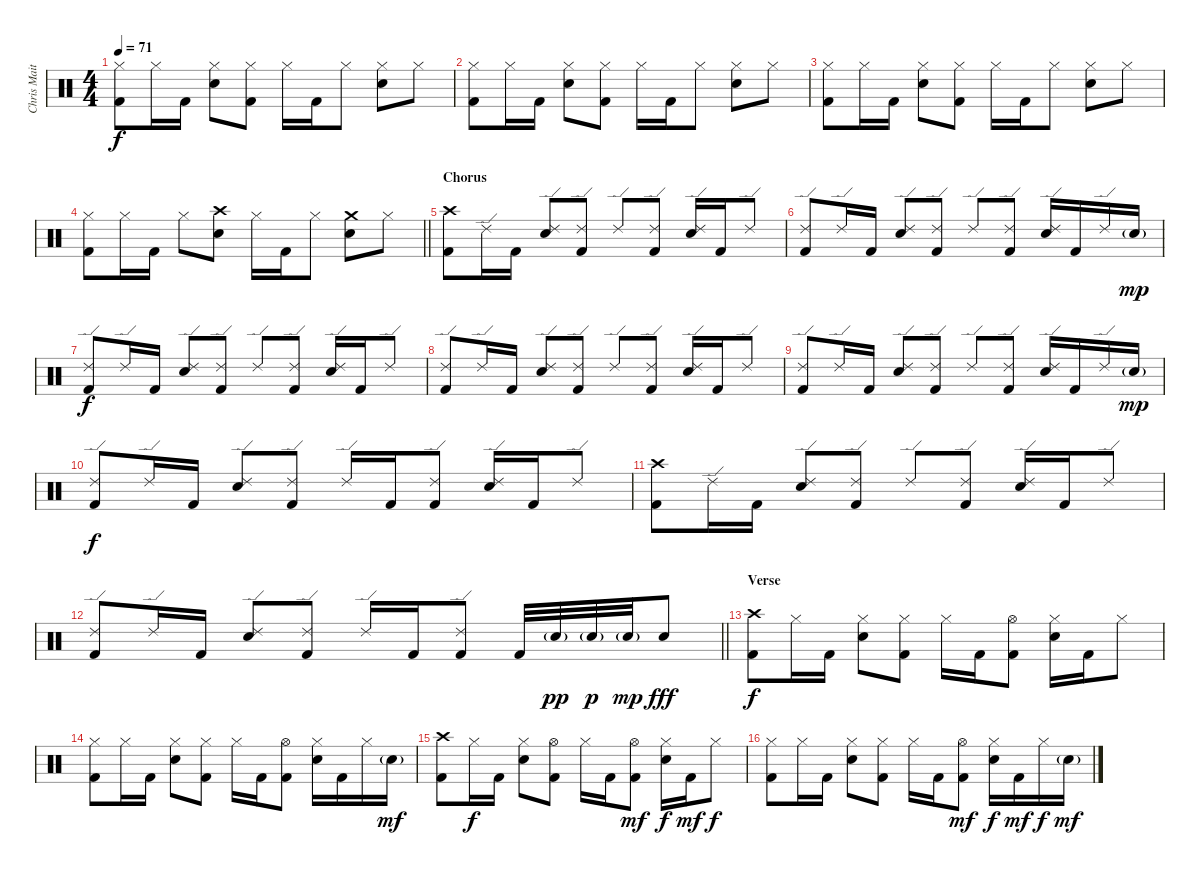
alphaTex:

\track ("Chris Maitland" "Chris Mait") {instrument percussion}
\staff {score}
\articulation defaults
\ts (4 4)
\tempo 71
\clef neutral
\ks c
("Hi-Hat (closed)" "Kick (hit) 2").8{dy f} "Hi-Hat (closed)".16 "Kick (hit) 2".16 ("Hi-Hat (closed)" "Snare (hit) 2").8 ("Hi-Hat (closed)" "Kick (hit) 2").8 "Hi-Hat (closed)".16 "Kick (hit) 2".16 "Hi-Hat (closed)".8 ("Hi-Hat (closed)" "Snare (hit) 2").8 "Hi-Hat (closed)".8 |
("Hi-Hat (closed)" "Kick (hit) 2").8 "Hi-Hat (closed)".16 "Kick (hit) 2".16 ("Hi-Hat (closed)" "Snare (hit) 2").8 ("Hi-Hat (closed)" "Kick (hit) 2").8 "Hi-Hat (closed)".16 "Kick (hit) 2".16 "Hi-Hat (closed)".8 ("Hi-Hat (closed)" "Snare (hit) 2").8 "Hi-Hat (closed)".8 |
("Hi-Hat (closed)" "Kick (hit) 2").8 "Hi-Hat (closed)".16 "Kick (hit) 2".16 ("Hi-Hat (closed)" "Snare (hit) 2").8 ("Hi-Hat (closed)" "Kick (hit) 2").8 "Hi-Hat (closed)".16 "Kick (hit) 2".16 "Hi-Hat (closed)".8 ("Hi-Hat (closed)" "Snare (hit) 2").8 "Hi-Hat (closed)".8 |
\barLineRight lightlight
("Hi-Hat (closed)" "Kick (hit) 2").8 "Hi-Hat (closed)".16 "Kick (hit) 2".16 "Hi-Hat (closed)".8 ("Crash high (hit)" "Snare (hit) 2").8 "Hi-Hat (closed)".16 "Kick (hit) 2".16 "Hi-Hat (closed)".8 ("Crash medium (hit)" "Snare (hit) 2").8 "Hi-Hat (closed)".8 |
\section ("" "Chorus")
("Crash high (hit)" "Kick (hit) 2").8 "Ride (edge) 2".16 "Kick (hit) 2".16 ("Ride (edge) 2" "Snare (hit) 2").8 ("Ride (edge) 2" "Kick (hit) 2").8 "Ride (edge) 2".8 ("Ride (edge) 2" "Kick (hit) 2").8 ("Ride (edge) 2" "Snare (hit) 2").16 "Kick (hit) 2".16 "Ride (edge) 2".8 |
("Ride (edge) 2" "Kick (hit) 2").8 "Ride (edge) 2".16 "Kick (hit) 2".16 ("Ride (edge) 2" "Snare (hit) 2").8 ("Ride (edge) 2" "Kick (hit) 2").8 "Ride (edge) 2".8 ("Ride (edge) 2" "Kick (hit) 2").8 ("Ride (edge) 2" "Snare (hit) 2").16 "Kick (hit) 2".16 "Ride (edge) 2".16 "Snare (hit) 2"{g}.16{dy mp} |
("Ride (edge) 2" "Kick (hit) 2").8{dy f} "Ride (edge) 2".16 "Kick (hit) 2".16 ("Ride (edge) 2" "Snare (hit) 2").8 ("Ride (edge) 2" "Kick (hit) 2").8 "Ride (edge) 2".8 ("Ride (edge) 2" "Kick (hit) 2").8 ("Ride (edge) 2" "Snare (hit) 2").16 "Kick (hit) 2".16 "Ride (edge) 2".8 |
("Ride (edge) 2" "Kick (hit) 2").8 "Ride (edge) 2".16 "Kick (hit) 2".16 ("Ride (edge) 2" "Snare (hit) 2").8 ("Ride (edge) 2" "Kick (hit) 2").8 "Ride (edge) 2".8 ("Ride (edge) 2" "Kick (hit) 2").8 ("Ride (edge) 2" "Snare (hit) 2").16 "Kick (hit) 2".16 "Ride (edge) 2".8 |
("Ride (edge) 2" "Kick (hit) 2").8 "Ride (edge) 2".16 "Kick (hit) 2".16 ("Ride (edge) 2" "Snare (hit) 2").8 ("Ride (edge) 2" "Kick (hit) 2").8 "Ride (edge) 2".8 ("Ride (edge) 2" "Kick (hit) 2").8 ("Ride (edge) 2" "Snare (hit) 2").16 "Kick (hit) 2".16 "Ride (edge) 2".16 "Snare (hit) 2"{g}.16{dy mp} |
("Ride (edge) 2" "Kick (hit) 2").8{dy f} "Ride (edge) 2".16 "Kick (hit) 2".16 ("Ride (edge) 2" "Snare (hit) 2").8 ("Ride (edge) 2" "Kick (hit) 2").8 "Ride (edge) 2".16 "Kick (hit) 2".16 ("Ride (edge) 2" "Kick (hit) 2").8 ("Ride (edge) 2" "Snare (hit) 2").16 "Kick (hit) 2".16 "Ride (edge) 2".8 |
("Crash high (hit)" "Kick (hit) 2").8 "Ride (edge) 2".16 "Kick (hit) 2".16 ("Ride (edge) 2" "Snare (hit) 2").8 ("Ride (edge) 2" "Kick (hit) 2").8 "Ride (edge) 2".8 ("Ride (edge) 2" "Kick (hit) 2").8 ("Ride (edge) 2" "Snare (hit) 2").16 "Kick (hit) 2".16 "Ride (edge) 2".8 |
\barLineRight lightlight
("Ride (edge) 2" "Kick (hit) 2").8 "Ride (edge) 2".16 "Kick (hit) 2".16 ("Ride (edge) 2" "Snare (hit) 2").8 ("Ride (edge) 2" "Kick (hit) 2").8 "Ride (edge) 2".16 "Kick (hit) 2".16 ("Ride (edge) 2" "Kick (hit) 2").8 "Kick (hit) 2".32 "Snare (hit) 2"{g}.32{dy pp} "Snare (hit) 2"{g}.32{dy p} "Snare (hit) 2"{g}.32{dy mp} "Snare (hit) 2".8{dy fff} |
\section ("" "Verse")
("Crash high (hit)" "Kick (hit) 2").8{dy f} "Hi-Hat (closed)".16 "Kick (hit) 2".16 ("Hi-Hat (closed)" "Snare (hit) 2").8 ("Hi-Hat (closed)" "Kick (hit) 2").8 "Hi-Hat (closed)".16 "Kick (hit) 2".16 ("Hi-Hat (open)" "Kick (hit) 2").8 ("Hi-Hat (closed)" "Snare (hit) 2").16 "Kick (hit) 2".16 "Hi-Hat (closed)".8 |
("Hi-Hat (closed)" "Kick (hit) 2").8 "Hi-Hat (closed)".16 "Kick (hit) 2".16 ("Hi-Hat (closed)" "Snare (hit) 2").8 ("Hi-Hat (closed)" "Kick (hit) 2").8 "Hi-Hat (closed)".16 "Kick (hit) 2".16 ("Hi-Hat (open)" "Kick (hit) 2").8 ("Hi-Hat (closed)" "Snare (hit) 2").16 "Kick (hit) 2".16 "Hi-Hat (closed)".16 "Snare (hit) 2"{g}.16{dy mf} |
("Crash high (hit)" "Kick (hit) 2").8 "Hi-Hat (closed)".16{dy f} "Kick (hit) 2".16 ("Hi-Hat (closed)" "Snare (hit) 2").8 ("Hi-Hat (open)" "Kick (hit) 2").8 "Hi-Hat (closed)".16 "Kick (hit) 2".16 ("Hi-Hat (open)" "Kick (hit) 2").8{dy mf} ("Hi-Hat (closed)" "Snare (hit) 2").16{dy f} "Kick (hit) 2".16{dy mf} "Hi-Hat (closed)".8{dy f} |
("Hi-Hat (closed)" "Kick (hit) 2").8 "Hi-Hat (closed)".16 "Kick (hit) 2".16 ("Hi-Hat (closed)" "Snare (hit) 2").8 ("Hi-Hat (closed)" "Kick (hit) 2").8 "Hi-Hat (closed)".16 "Kick (hit) 2".16 ("Hi-Hat (open)" "Kick (hit) 2").8{dy mf} ("Hi-Hat (closed)" "Snare (hit) 2").16{dy f} "Kick (hit) 2".16{dy mf} "Hi-Hat (closed)".16{dy f} "Snare (hit) 2"{g}.16{dy mf}
